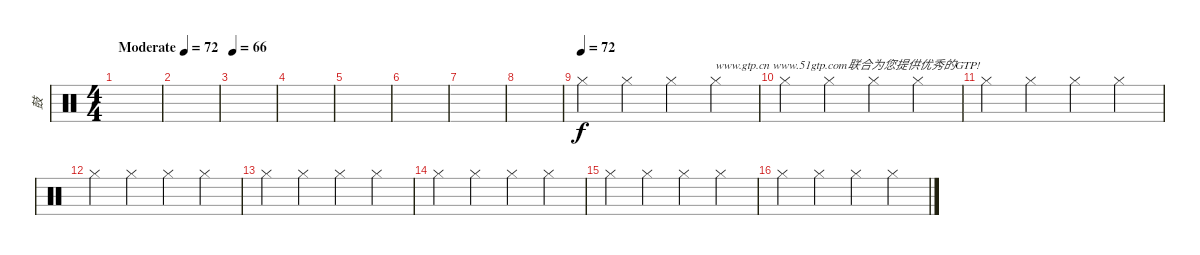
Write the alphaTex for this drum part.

\track ("鼓" "鼓") {instrument percussion}
\staff {score}
\articulation defaults
\ts (4 4)
\tempo (72 "Moderate")
\clef neutral
\ks c
|
|
\tempo 66
|
|
|
|
|
|
\tempo (72)
"Hi-Hat (closed)".4 "Hi-Hat (closed)".4 "Hi-Hat (closed)".4 "Hi-Hat (closed)".4{txt "www.gtp.cn www.51gtp.com联合为您提供优秀的GTP!"} |
"Hi-Hat (closed)".4 "Hi-Hat (closed)".4 "Hi-Hat (closed)".4 "Hi-Hat (closed)".4 |
"Hi-Hat (closed)".4 "Hi-Hat (closed)".4 "Hi-Hat (closed)".4 "Hi-Hat (closed)".4 |
"Hi-Hat (closed)".4 "Hi-Hat (closed)".4 "Hi-Hat (closed)".4 "Hi-Hat (closed)".4 |
"Hi-Hat (closed)".4 "Hi-Hat (closed)".4 "Hi-Hat (closed)".4 "Hi-Hat (closed)".4 |
"Hi-Hat (closed)".4 "Hi-Hat (closed)".4 "Hi-Hat (closed)".4 "Hi-Hat (closed)".4 |
"Hi-Hat (closed)".4 "Hi-Hat (closed)".4 "Hi-Hat (closed)".4 "Hi-Hat (closed)".4 |
"Hi-Hat (closed)".4 "Hi-Hat (closed)".4 "Hi-Hat (closed)".4 "Hi-Hat (closed)".4
